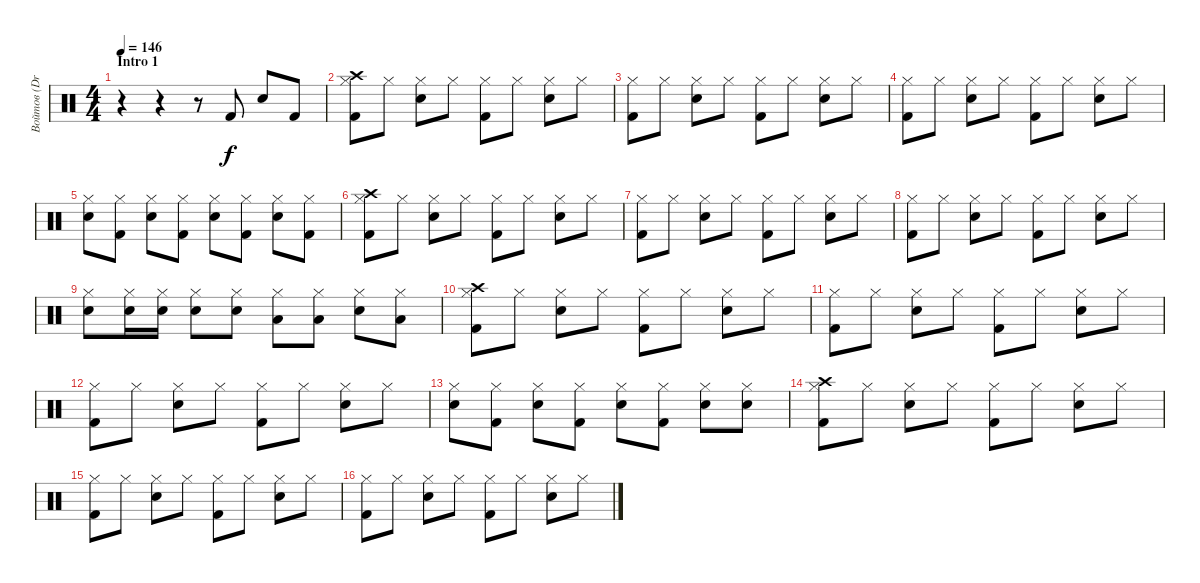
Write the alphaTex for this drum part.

\track ("Войтов (Drums)" "Войтов (Dr") {instrument percussion}
\staff {score}
\articulation defaults
\ts (4 4)
\section ("" "Intro 1")
\tempo 146
\clef neutral
\ks c
r.4{dy f} r.4 r.8 "Kick (hit) 2".8 "Electric Snare (hit)".8 "Kick (hit) 2".8 |
("Kick (hit) 2" "Hi-Hat (closed)" "Crash high (hit)").8 "Hi-Hat (closed)".8 ("Electric Snare (hit)" "Hi-Hat (closed)").8 "Hi-Hat (closed)".8 ("Kick (hit) 2" "Hi-Hat (closed)").8 "Hi-Hat (closed)".8 ("Electric Snare (hit)" "Hi-Hat (closed)").8 "Hi-Hat (closed)".8 |
("Kick (hit) 2" "Hi-Hat (closed)").8 "Hi-Hat (closed)".8 ("Electric Snare (hit)" "Hi-Hat (closed)").8 "Hi-Hat (closed)".8 ("Kick (hit) 2" "Hi-Hat (closed)").8 "Hi-Hat (closed)".8 ("Electric Snare (hit)" "Hi-Hat (closed)").8 "Hi-Hat (closed)".8 |
("Kick (hit) 2" "Hi-Hat (closed)").8 "Hi-Hat (closed)".8 ("Electric Snare (hit)" "Hi-Hat (closed)").8 "Hi-Hat (closed)".8 ("Kick (hit) 2" "Hi-Hat (closed)").8 "Hi-Hat (closed)".8 ("Electric Snare (hit)" "Hi-Hat (closed)").8 "Hi-Hat (closed)".8 |
("Electric Snare (hit)" "Hi-Hat (closed)").8 ("Kick (hit) 2" "Hi-Hat (closed)").8 ("Electric Snare (hit)" "Hi-Hat (closed)").8 ("Kick (hit) 2" "Hi-Hat (closed)").8 ("Electric Snare (hit)" "Hi-Hat (closed)").8 ("Kick (hit) 2" "Hi-Hat (closed)").8 ("Electric Snare (hit)" "Hi-Hat (closed)").8 ("Kick (hit) 2" "Hi-Hat (closed)").8 |
("Kick (hit) 2" "Hi-Hat (closed)" "Crash high (hit)").8 "Hi-Hat (closed)".8 ("Electric Snare (hit)" "Hi-Hat (closed)").8 "Hi-Hat (closed)".8 ("Kick (hit) 2" "Hi-Hat (closed)").8 "Hi-Hat (closed)".8 ("Electric Snare (hit)" "Hi-Hat (closed)").8 "Hi-Hat (closed)".8 |
("Kick (hit) 2" "Hi-Hat (closed)").8 "Hi-Hat (closed)".8 ("Electric Snare (hit)" "Hi-Hat (closed)").8 "Hi-Hat (closed)".8 ("Kick (hit) 2" "Hi-Hat (closed)").8 "Hi-Hat (closed)".8 ("Electric Snare (hit)" "Hi-Hat (closed)").8 "Hi-Hat (closed)".8 |
("Kick (hit) 2" "Hi-Hat (closed)").8 "Hi-Hat (closed)".8 ("Electric Snare (hit)" "Hi-Hat (closed)").8 "Hi-Hat (closed)".8 ("Kick (hit) 2" "Hi-Hat (closed)").8 "Hi-Hat (closed)".8 ("Electric Snare (hit)" "Hi-Hat (closed)").8 "Hi-Hat (closed)".8 |
("Electric Snare (hit)" "Hi-Hat (closed)").8 ("Electric Snare (hit)" "Hi-Hat (closed)").16 ("Electric Snare (hit)" "Hi-Hat (closed)").16 ("Electric Snare (hit)" "Hi-Hat (closed)").8 ("Electric Snare (hit)" "Hi-Hat (closed)").8 ("Low Tom (hit)" "Hi-Hat (closed)").8 ("Low Tom (hit)" "Hi-Hat (closed)").8 ("Electric Snare (hit)" "Hi-Hat (closed)").8 ("Low Tom (hit)" "Hi-Hat (closed)").8 |
("Kick (hit) 2" "Hi-Hat (closed)" "Crash high (hit)").8 "Hi-Hat (closed)".8 ("Electric Snare (hit)" "Hi-Hat (closed)").8 "Hi-Hat (closed)".8 ("Kick (hit) 2" "Hi-Hat (closed)").8 "Hi-Hat (closed)".8 ("Electric Snare (hit)" "Hi-Hat (closed)").8 "Hi-Hat (closed)".8 |
("Kick (hit) 2" "Hi-Hat (closed)").8 "Hi-Hat (closed)".8 ("Electric Snare (hit)" "Hi-Hat (closed)").8 "Hi-Hat (closed)".8 ("Kick (hit) 2" "Hi-Hat (closed)").8 "Hi-Hat (closed)".8 ("Electric Snare (hit)" "Hi-Hat (closed)").8 "Hi-Hat (closed)".8 |
("Kick (hit) 2" "Hi-Hat (closed)").8 "Hi-Hat (closed)".8 ("Electric Snare (hit)" "Hi-Hat (closed)").8 "Hi-Hat (closed)".8 ("Kick (hit) 2" "Hi-Hat (closed)").8 "Hi-Hat (closed)".8 ("Electric Snare (hit)" "Hi-Hat (closed)").8 "Hi-Hat (closed)".8 |
("Electric Snare (hit)" "Hi-Hat (closed)").8 ("Kick (hit) 2" "Hi-Hat (closed)").8 ("Electric Snare (hit)" "Hi-Hat (closed)").8 ("Kick (hit) 2" "Hi-Hat (closed)").8 ("Electric Snare (hit)" "Hi-Hat (closed)").8 ("Kick (hit) 2" "Hi-Hat (closed)").8 ("Electric Snare (hit)" "Hi-Hat (closed)").8 ("Electric Snare (hit)" "Hi-Hat (closed)").8 |
("Kick (hit) 2" "Hi-Hat (closed)" "Crash high (hit)").8 "Hi-Hat (closed)".8 ("Electric Snare (hit)" "Hi-Hat (closed)").8 "Hi-Hat (closed)".8 ("Kick (hit) 2" "Hi-Hat (closed)").8 "Hi-Hat (closed)".8 ("Electric Snare (hit)" "Hi-Hat (closed)").8 "Hi-Hat (closed)".8 |
("Kick (hit) 2" "Hi-Hat (closed)").8 "Hi-Hat (closed)".8 ("Electric Snare (hit)" "Hi-Hat (closed)").8 "Hi-Hat (closed)".8 ("Kick (hit) 2" "Hi-Hat (closed)").8 "Hi-Hat (closed)".8 ("Electric Snare (hit)" "Hi-Hat (closed)").8 "Hi-Hat (closed)".8 |
("Kick (hit) 2" "Hi-Hat (closed)").8 "Hi-Hat (closed)".8 ("Electric Snare (hit)" "Hi-Hat (closed)").8 "Hi-Hat (closed)".8 ("Kick (hit) 2" "Hi-Hat (closed)").8 "Hi-Hat (closed)".8 ("Electric Snare (hit)" "Hi-Hat (closed)").8 "Hi-Hat (closed)".8
